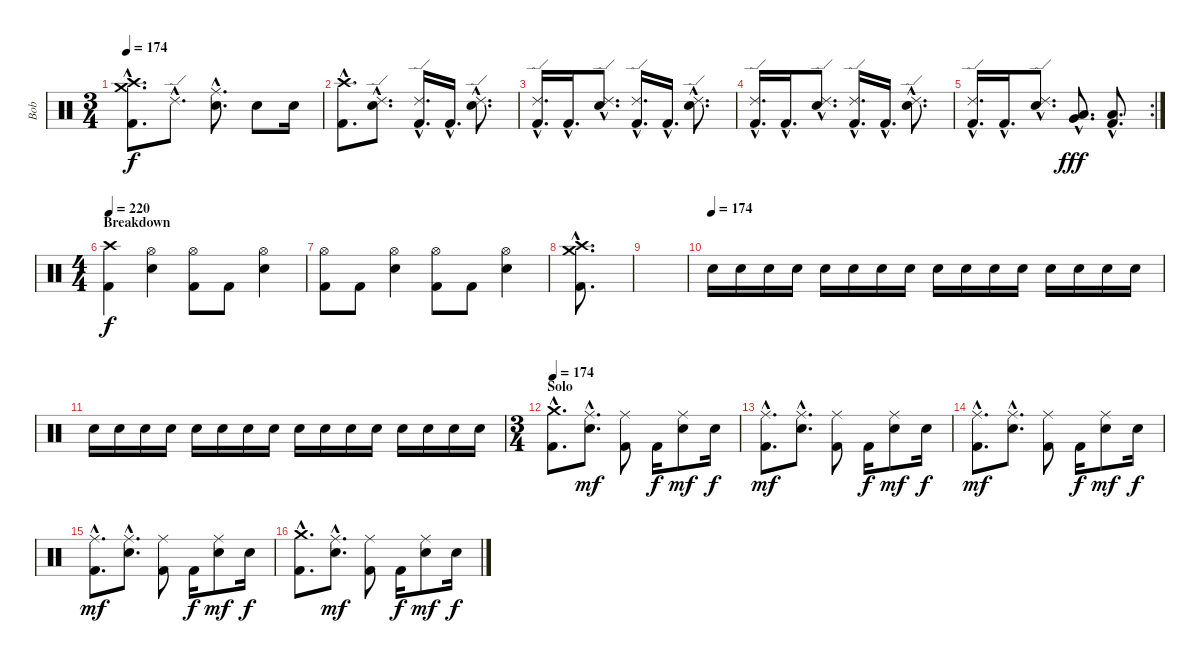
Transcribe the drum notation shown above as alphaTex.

\track ("Bob" "Bob") {instrument percussion}
\staff {score}
\articulation defaults
\ts (3 4)
\tempo 174
\clef neutral
\ks c
("Crash high (hit)"{hac} "Crash medium (hit)"{hac} "Kick (hit) 2"{hac}).8{d dy f} "Ride (edge) 2"{hac}.8{d} ("Ride (middle)"{hac} "Electric Snare (hit)"{hac}).8{d} "Electric Snare (hit)".8 "Electric Snare (hit)".16 |
("Crash high (hit)"{hac} "Kick (hit) 2"{hac}).8{d} ("Ride (edge) 2"{hac} "Electric Snare (hit)"{hac}).8{d} ("Ride (edge) 2"{hac} "Kick (hit) 2"{hac}).16{d} "Kick (hit) 2"{hac}.16{d} ("Ride (edge) 2"{hac} "Electric Snare (hit)"{hac}).8{d} |
("Ride (edge) 2"{hac} "Kick (hit) 2"{hac}).16{d} "Kick (hit) 2"{hac}.16{d} ("Ride (edge) 2"{hac} "Electric Snare (hit)"{hac}).8{d} ("Ride (edge) 2"{hac} "Kick (hit) 2"{hac}).16{d} "Kick (hit) 2"{hac}.16{d} ("Ride (edge) 2"{hac} "Electric Snare (hit)"{hac}).8{d} |
("Ride (edge) 2"{hac} "Kick (hit) 2"{hac}).16{d} "Kick (hit) 2"{hac}.16{d} ("Ride (edge) 2"{hac} "Electric Snare (hit)"{hac}).8{d} ("Ride (edge) 2"{hac} "Kick (hit) 2"{hac}).16{d} "Kick (hit) 2"{hac}.16{d} ("Ride (edge) 2"{hac} "Electric Snare (hit)"{hac}).8{d} |
\rc 2
("Ride (edge) 2"{hac} "Kick (hit) 2"{hac}).16{d} "Kick (hit) 2"{hac}.16{d} ("Ride (edge) 2"{hac} "Electric Snare (hit)"{hac}).8{d} ("Low Tom (hit)"{hac} "Very Low Tom (hit)"{hac}).8{d dy fff} ("Low Floor Tom (hit)"{hac} "Kick (hit) 2"{hac}).8{d} |
\ts (4 4)
\section ("" "Breakdown")
\tempo 220
("Crash high (hit)" "Kick (hit) 2").4{dy f} ("Hi-Hat (open)" "Electric Snare (hit)").4 ("Hi-Hat (open)" "Kick (hit) 2").8 "Kick (hit) 2".8 ("Hi-Hat (open)" "Electric Snare (hit)").4 |
("Hi-Hat (open)" "Kick (hit) 2").8 "Kick (hit) 2".8 ("Hi-Hat (open)" "Electric Snare (hit)").4 ("Hi-Hat (open)" "Kick (hit) 2").8 "Kick (hit) 2".8 ("Hi-Hat (open)" "Electric Snare (hit)").4 |
("Crash high (hit)"{hac} "Crash medium (hit)"{hac} "Kick (hit) 2"{hac}).8{d} |
|
\tempo (174)
"Electric Snare (hit)".16 "Electric Snare (hit)".16 "Electric Snare (hit)".16 "Electric Snare (hit)".16 "Electric Snare (hit)".16 "Electric Snare (hit)".16 "Electric Snare (hit)".16 "Electric Snare (hit)".16 "Electric Snare (hit)".16 "Electric Snare (hit)".16 "Electric Snare (hit)".16 "Electric Snare (hit)".16 "Electric Snare (hit)".16 "Electric Snare (hit)".16 "Electric Snare (hit)".16 "Electric Snare (hit)".16 |
"Electric Snare (hit)".16 "Electric Snare (hit)".16 "Electric Snare (hit)".16 "Electric Snare (hit)".16 "Electric Snare (hit)".16 "Electric Snare (hit)".16 "Electric Snare (hit)".16 "Electric Snare (hit)".16 "Electric Snare (hit)".16 "Electric Snare (hit)".16 "Electric Snare (hit)".16 "Electric Snare (hit)".16 "Electric Snare (hit)".16 "Electric Snare (hit)".16 "Electric Snare (hit)".16 "Electric Snare (hit)".16 |
\ts (3 4)
\section ("" "Solo")
\tempo 174
("Crash medium (hit)"{hac} "Kick (hit) 2"{hac}).8{d} ("Ride (middle)"{hac} "Electric Snare (hit)"{hac}).8{d dy mf} ("Ride (middle)" "Kick (hit) 2").8 "Kick (hit) 2".16{dy f} ("Ride (middle)" "Electric Snare (hit)").8{dy mf} "Electric Snare (hit)".16{dy f} |
("Ride (middle)"{hac} "Kick (hit) 2"{hac}).8{d dy mf} ("Ride (middle)"{hac} "Electric Snare (hit)"{hac}).8{d} ("Ride (middle)" "Kick (hit) 2").8 "Kick (hit) 2".16{dy f} ("Ride (middle)" "Electric Snare (hit)").8{dy mf} "Electric Snare (hit)".16{dy f} |
("Ride (middle)"{hac} "Kick (hit) 2"{hac}).8{d dy mf} ("Ride (middle)"{hac} "Electric Snare (hit)"{hac}).8{d} ("Ride (middle)" "Kick (hit) 2").8 "Kick (hit) 2".16{dy f} ("Ride (middle)" "Electric Snare (hit)").8{dy mf} "Electric Snare (hit)".16{dy f} |
("Ride (middle)"{hac} "Kick (hit) 2"{hac}).8{d dy mf} ("Ride (middle)"{hac} "Electric Snare (hit)"{hac}).8{d} ("Ride (middle)" "Kick (hit) 2").8 "Kick (hit) 2".16{dy f} ("Ride (middle)" "Electric Snare (hit)").8{dy mf} "Electric Snare (hit)".16{dy f} |
("Crash medium (hit)"{hac} "Kick (hit) 2"{hac}).8{d} ("Ride (middle)"{hac} "Electric Snare (hit)"{hac}).8{d dy mf} ("Ride (middle)" "Kick (hit) 2").8 "Kick (hit) 2".16{dy f} ("Ride (middle)" "Electric Snare (hit)").8{dy mf} "Electric Snare (hit)".16{dy f}
